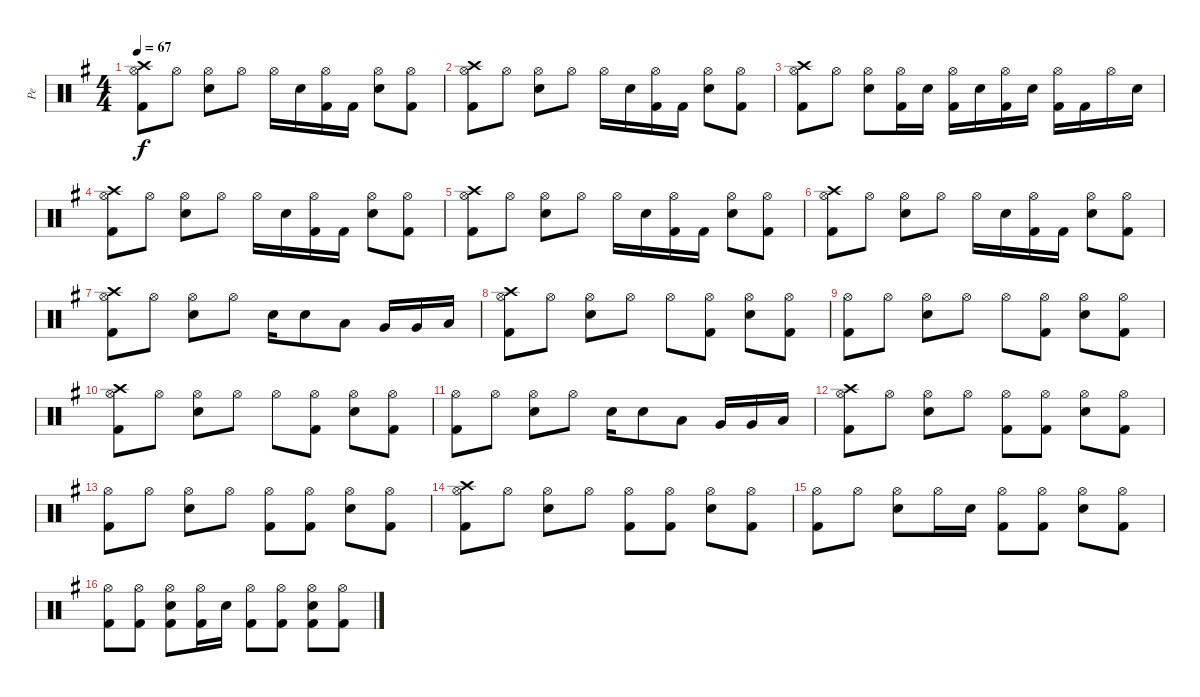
\track ("Pe" "Pe") {instrument percussion}
\staff {score}
\articulation defaults
\ts (4 4)
\tempo 67
\clef neutral
\ks g
("Crash high (hit)" "Hi-Hat (open)" "Kick (hit) 2").8{dy f} "Hi-Hat (open)".8 ("Snare (hit) 2" "Hi-Hat (open)").8 "Hi-Hat (open)".8 "Hi-Hat (open)".16 "Snare (hit) 2".16 ("Hi-Hat (open)" "Kick (hit) 2").16 "Kick (hit) 2".16 ("Snare (hit) 2" "Hi-Hat (open)").8 ("Hi-Hat (open)" "Kick (hit) 2").8 |
("Crash high (hit)" "Hi-Hat (open)" "Kick (hit) 2").8 "Hi-Hat (open)".8 ("Snare (hit) 2" "Hi-Hat (open)").8 "Hi-Hat (open)".8 "Hi-Hat (open)".16 "Snare (hit) 2".16 ("Hi-Hat (open)" "Kick (hit) 2").16 "Kick (hit) 2".16 ("Snare (hit) 2" "Hi-Hat (open)").8 ("Hi-Hat (open)" "Kick (hit) 2").8 |
("Crash high (hit)" "Hi-Hat (open)" "Kick (hit) 2").8 "Hi-Hat (open)".8 ("Snare (hit) 2" "Hi-Hat (open)").8 ("Hi-Hat (open)" "Kick (hit) 2").16 "Snare (hit) 2".16 ("Hi-Hat (open)" "Kick (hit) 2").16 "Snare (hit) 2".16 ("Hi-Hat (open)" "Kick (hit) 2").16 "Snare (hit) 2".16 ("Hi-Hat (open)" "Kick (hit) 2").16 "Kick (hit) 2".16 "Hi-Hat (open)".16 "Snare (hit) 2".16 |
("Crash high (hit)" "Hi-Hat (open)" "Kick (hit) 2").8 "Hi-Hat (open)".8 ("Snare (hit) 2" "Hi-Hat (open)").8 "Hi-Hat (open)".8 "Hi-Hat (open)".16 "Snare (hit) 2".16 ("Hi-Hat (open)" "Kick (hit) 2").16 "Kick (hit) 2".16 ("Snare (hit) 2" "Hi-Hat (open)").8 ("Hi-Hat (open)" "Kick (hit) 2").8 |
("Crash high (hit)" "Hi-Hat (open)" "Kick (hit) 2").8 "Hi-Hat (open)".8 ("Snare (hit) 2" "Hi-Hat (open)").8 "Hi-Hat (open)".8 "Hi-Hat (open)".16 "Snare (hit) 2".16 ("Hi-Hat (open)" "Kick (hit) 2").16 "Kick (hit) 2".16 ("Snare (hit) 2" "Hi-Hat (open)").8 ("Hi-Hat (open)" "Kick (hit) 2").8 |
("Crash high (hit)" "Hi-Hat (open)" "Kick (hit) 2").8 "Hi-Hat (open)".8 ("Snare (hit) 2" "Hi-Hat (open)").8 "Hi-Hat (open)".8 "Hi-Hat (open)".16 "Snare (hit) 2".16 ("Hi-Hat (open)" "Kick (hit) 2").16 "Kick (hit) 2".16 ("Snare (hit) 2" "Hi-Hat (open)").8 ("Hi-Hat (open)" "Kick (hit) 2").8 |
("Crash high (hit)" "Hi-Hat (open)" "Kick (hit) 2").8 "Hi-Hat (open)".8 ("Snare (hit) 2" "Hi-Hat (open)").8 "Hi-Hat (open)".8 "Snare (hit) 2".16 "Snare (hit) 2".8 "Low Tom (hit)".8 "Very Low Tom (hit)".16 "Very Low Tom (hit)".16 "Low Floor Tom (hit)".16 |
("Crash high (hit)" "Hi-Hat (open)" "Kick (hit) 2").8 "Hi-Hat (open)".8 ("Snare (hit) 2" "Hi-Hat (open)").8 "Hi-Hat (open)".8 "Hi-Hat (open)".8 ("Hi-Hat (open)" "Kick (hit) 2").8 ("Snare (hit) 2" "Hi-Hat (open)").8 ("Hi-Hat (open)" "Kick (hit) 2").8 |
("Hi-Hat (open)" "Kick (hit) 2").8 "Hi-Hat (open)".8 ("Snare (hit) 2" "Hi-Hat (open)").8 "Hi-Hat (open)".8 "Hi-Hat (open)".8 ("Hi-Hat (open)" "Kick (hit) 2").8 ("Snare (hit) 2" "Hi-Hat (open)").8 ("Hi-Hat (open)" "Kick (hit) 2").8 |
("Crash high (hit)" "Hi-Hat (open)" "Kick (hit) 2").8 "Hi-Hat (open)".8 ("Snare (hit) 2" "Hi-Hat (open)").8 "Hi-Hat (open)".8 "Hi-Hat (open)".8 ("Hi-Hat (open)" "Kick (hit) 2").8 ("Snare (hit) 2" "Hi-Hat (open)").8 ("Hi-Hat (open)" "Kick (hit) 2").8 |
("Hi-Hat (open)" "Kick (hit) 2").8 "Hi-Hat (open)".8 ("Snare (hit) 2" "Hi-Hat (open)").8 "Hi-Hat (open)".8 "Snare (hit) 2".16 "Snare (hit) 2".8 "Low Tom (hit)".8 "Very Low Tom (hit)".16 "Very Low Tom (hit)".16 "Low Floor Tom (hit)".16 |
("Crash high (hit)" "Hi-Hat (open)" "Kick (hit) 2").8 "Hi-Hat (open)".8 ("Snare (hit) 2" "Hi-Hat (open)").8 "Hi-Hat (open)".8 ("Hi-Hat (open)" "Kick (hit) 2").8 ("Hi-Hat (open)" "Kick (hit) 2").8 ("Snare (hit) 2" "Hi-Hat (open)").8 ("Hi-Hat (open)" "Kick (hit) 2").8 |
("Hi-Hat (open)" "Kick (hit) 2").8 "Hi-Hat (open)".8 ("Snare (hit) 2" "Hi-Hat (open)").8 "Hi-Hat (open)".8 ("Hi-Hat (open)" "Kick (hit) 2").8 ("Hi-Hat (open)" "Kick (hit) 2").8 ("Snare (hit) 2" "Hi-Hat (open)").8 ("Hi-Hat (open)" "Kick (hit) 2").8 |
("Crash high (hit)" "Hi-Hat (open)" "Kick (hit) 2").8 "Hi-Hat (open)".8 ("Snare (hit) 2" "Hi-Hat (open)").8 "Hi-Hat (open)".8 ("Hi-Hat (open)" "Kick (hit) 2").8 ("Hi-Hat (open)" "Kick (hit) 2").8 ("Snare (hit) 2" "Hi-Hat (open)").8 ("Hi-Hat (open)" "Kick (hit) 2").8 |
("Hi-Hat (open)" "Kick (hit) 2").8 "Hi-Hat (open)".8 ("Snare (hit) 2" "Hi-Hat (open)").8 "Hi-Hat (open)".16 "Snare (hit) 2".16 ("Hi-Hat (open)" "Kick (hit) 2").8 ("Hi-Hat (open)" "Kick (hit) 2").8 ("Snare (hit) 2" "Hi-Hat (open)").8 ("Hi-Hat (open)" "Kick (hit) 2").8 |
("Hi-Hat (open)" "Kick (hit) 2").8 ("Hi-Hat (open)" "Kick (hit) 2").8 ("Snare (hit) 2" "Hi-Hat (open)" "Kick (hit) 2").8 ("Hi-Hat (open)" "Kick (hit) 2").16 "Snare (hit) 2".16 ("Hi-Hat (open)" "Kick (hit) 2").8 ("Hi-Hat (open)" "Kick (hit) 2").8 ("Snare (hit) 2" "Hi-Hat (open)" "Kick (hit) 2").8 ("Hi-Hat (open)" "Kick (hit) 2").8
